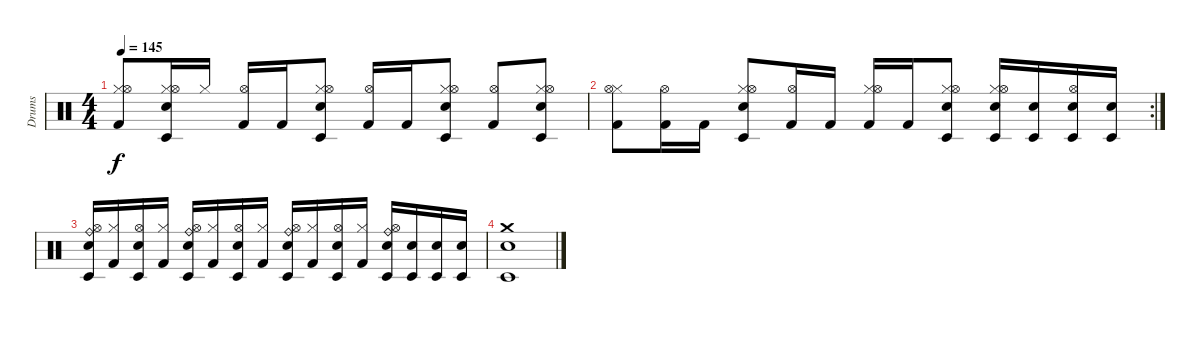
\track ("Drums" "Drums") {instrument percussion}
\staff {score}
\articulation defaults
\ts (4 4)
\tempo 145
\clef neutral
\ks c
("Kick (hit) 2" "Hi-Hat (closed)" "Hi-Hat (open)").8{dy f} ("Electric Snare (hit)" "Hi-Hat (closed)" "Timbale low (hit)" "Hi-Hat (open)").16 "Hi-Hat (closed)".16 ("Kick (hit) 2" "Hi-Hat (open)").16 "Kick (hit) 2".16 ("Electric Snare (hit)" "Hi-Hat (closed)" "Timbale low (hit)" "Hi-Hat (open)").8 ("Kick (hit) 2" "Hi-Hat (open)").16 "Kick (hit) 2".16 ("Electric Snare (hit)" "Hi-Hat (closed)" "Timbale low (hit)" "Hi-Hat (open)").8 ("Kick (hit) 2" "Hi-Hat (open)").8 ("Electric Snare (hit)" "Hi-Hat (closed)" "Timbale low (hit)" "Hi-Hat (open)").8 |
\rc 2
("Kick (hit) 2" "Hi-Hat (closed)" "Hi-Hat (open)").8 ("Kick (hit) 2" "Hi-Hat (open)").16 "Kick (hit) 2".16 ("Electric Snare (hit)" "Hi-Hat (closed)" "Hi-Hat (open)" "Timbale low (hit)").8 ("Kick (hit) 2" "Hi-Hat (open)").16 "Kick (hit) 2".16 ("Kick (hit) 2" "Hi-Hat (closed)" "Hi-Hat (open)").16 "Kick (hit) 2".16 ("Electric Snare (hit)" "Hi-Hat (closed)" "Timbale low (hit)" "Hi-Hat (open)").8 ("Hi-Hat (closed)" "Electric Snare (hit)" "Timbale low (hit)" "Hi-Hat (open)").16 ("Electric Snare (hit)" "Timbale low (hit)").16 ("Electric Snare (hit)" "Timbale low (hit)" "Hi-Hat (open)").16 ("Electric Snare (hit)" "Timbale low (hit)").16 |
("Electric Snare (hit)" "Hi-Hat (open)" "Ride (bell)" "Timbale low (hit)").16 ("Kick (hit) 2" "Hi-Hat (closed)").16 ("Electric Snare (hit)" "Hi-Hat (open)" "Timbale low (hit)").16 ("Kick (hit) 2" "Hi-Hat (closed)").16 ("Electric Snare (hit)" "Hi-Hat (open)" "Ride (bell)" "Timbale low (hit)").16 ("Kick (hit) 2" "Hi-Hat (closed)").16 ("Electric Snare (hit)" "Hi-Hat (open)" "Timbale low (hit)").16 ("Kick (hit) 2" "Hi-Hat (closed)").16 ("Electric Snare (hit)" "Hi-Hat (open)" "Ride (bell)" "Timbale low (hit)").16 ("Kick (hit) 2" "Hi-Hat (closed)").16 ("Electric Snare (hit)" "Hi-Hat (open)" "Timbale low (hit)").16 ("Kick (hit) 2" "Hi-Hat (closed)").16 ("Electric Snare (hit)" "Hi-Hat (open)" "Ride (bell)" "Timbale low (hit)").16 ("Electric Snare (hit)" "Timbale low (hit)").16 ("Electric Snare (hit)" "Timbale low (hit)").16 ("Electric Snare (hit)" "Timbale low (hit)").16 |
("Crash medium (hit)" "Electric Snare (hit)" "Timbale low (hit)").1
